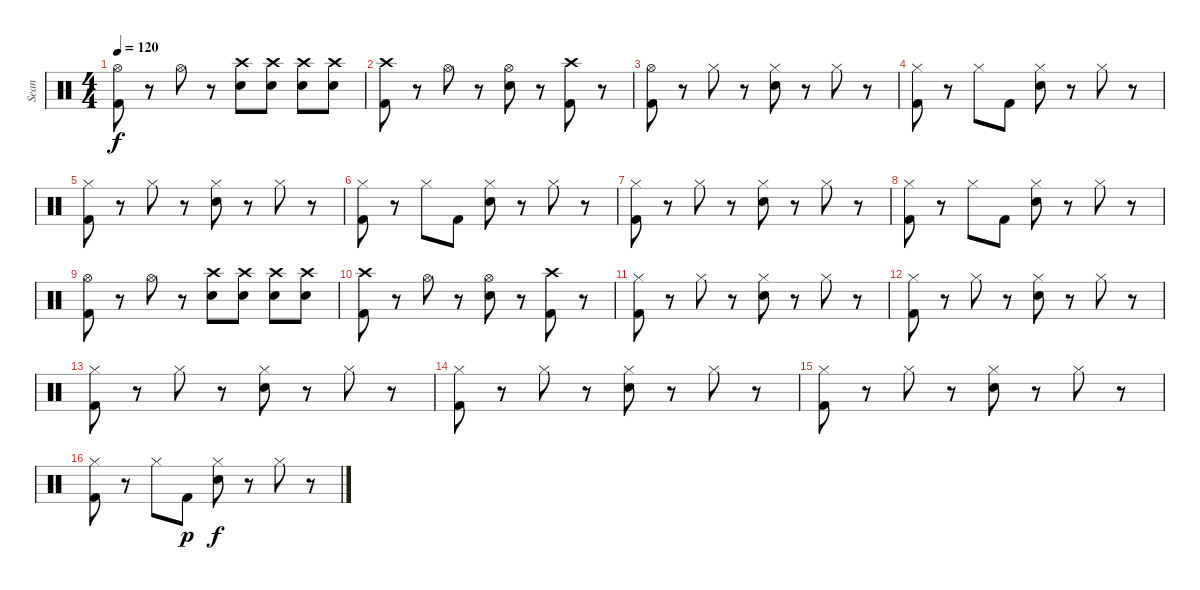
\track ("Sean" "Sean") {instrument percussion}
\staff {score}
\articulation defaults
\ts (4 4)
\tempo 120
\clef neutral
\ks c
("Hi-Hat (open)" "Kick (hit) 2").8{dy f} r.8 "Hi-Hat (open)".8 r.8 ("Crash high (hit)" "Snare (hit) 2").8 ("Crash high (hit)" "Snare (hit) 2").8 ("Crash high (hit)" "Snare (hit) 2").8 ("Crash high (hit)" "Snare (hit) 2").8 |
("Crash high (hit)" "Kick (hit) 2").8 r.8 "Hi-Hat (open)".8 r.8 ("Hi-Hat (open)" "Snare (hit) 2").8 r.8 ("Crash high (hit)" "Kick (hit) 2").8 r.8 |
("Hi-Hat (open)" "Kick (hit) 2").8 r.8 "Hi-Hat (closed)".8 r.8 ("Hi-Hat (closed)" "Snare (hit) 2").8 r.8 "Hi-Hat (closed)".8 r.8 |
("Hi-Hat (closed)" "Kick (hit) 2").8 r.8 "Hi-Hat (closed)".8 "Kick (hit) 2".8 ("Hi-Hat (closed)" "Snare (hit) 2").8 r.8 "Hi-Hat (closed)".8 r.8 |
("Hi-Hat (closed)" "Kick (hit) 2").8 r.8 "Hi-Hat (closed)".8 r.8 ("Hi-Hat (closed)" "Snare (hit) 2").8 r.8 "Hi-Hat (closed)".8 r.8 |
("Hi-Hat (closed)" "Kick (hit) 2").8 r.8 "Hi-Hat (closed)".8 "Kick (hit) 2".8 ("Hi-Hat (closed)" "Snare (hit) 2").8 r.8 "Hi-Hat (closed)".8 r.8 |
("Hi-Hat (closed)" "Kick (hit) 2").8 r.8 "Hi-Hat (closed)".8 r.8 ("Hi-Hat (closed)" "Snare (hit) 2").8 r.8 "Hi-Hat (closed)".8 r.8 |
("Hi-Hat (closed)" "Kick (hit) 2").8 r.8 "Hi-Hat (closed)".8 "Kick (hit) 2".8 ("Hi-Hat (closed)" "Snare (hit) 2").8 r.8 "Hi-Hat (closed)".8 r.8 |
("Hi-Hat (open)" "Kick (hit) 2").8 r.8 "Hi-Hat (open)".8 r.8 ("Crash high (hit)" "Snare (hit) 2").8 ("Crash high (hit)" "Snare (hit) 2").8 ("Crash high (hit)" "Snare (hit) 2").8 ("Crash high (hit)" "Snare (hit) 2").8 |
("Crash high (hit)" "Kick (hit) 2").8 r.8 "Hi-Hat (open)".8 r.8 ("Hi-Hat (open)" "Snare (hit) 2").8 r.8 ("Crash high (hit)" "Kick (hit) 2").8 r.8 |
("Hi-Hat (closed)" "Kick (hit) 2").8 r.8 "Hi-Hat (closed)".8 r.8 ("Hi-Hat (closed)" "Snare (hit) 2").8 r.8 "Hi-Hat (closed)".8 r.8 |
("Hi-Hat (closed)" "Kick (hit) 2").8{volume 10} r.8 "Hi-Hat (closed)".8 r.8 ("Hi-Hat (closed)" "Snare (hit) 2").8 r.8 "Hi-Hat (closed)".8 r.8 |
("Hi-Hat (closed)" "Kick (hit) 2").8 r.8 "Hi-Hat (closed)".8 r.8 ("Hi-Hat (closed)" "Snare (hit) 2").8 r.8 "Hi-Hat (closed)".8 r.8 |
("Hi-Hat (closed)" "Kick (hit) 2").8 r.8 "Hi-Hat (closed)".8 r.8 ("Hi-Hat (closed)" "Snare (hit) 2").8 r.8 "Hi-Hat (closed)".8 r.8 |
("Hi-Hat (closed)" "Kick (hit) 2").8 r.8 "Hi-Hat (closed)".8 r.8 ("Hi-Hat (closed)" "Snare (hit) 2").8 r.8 "Hi-Hat (closed)".8 r.8 |
("Hi-Hat (closed)" "Kick (hit) 2").8{volume 7} r.8 "Hi-Hat (closed)".8 "Kick (hit) 2".8{dy p} ("Hi-Hat (closed)" "Snare (hit) 2").8{dy f} r.8 "Hi-Hat (closed)".8 r.8
